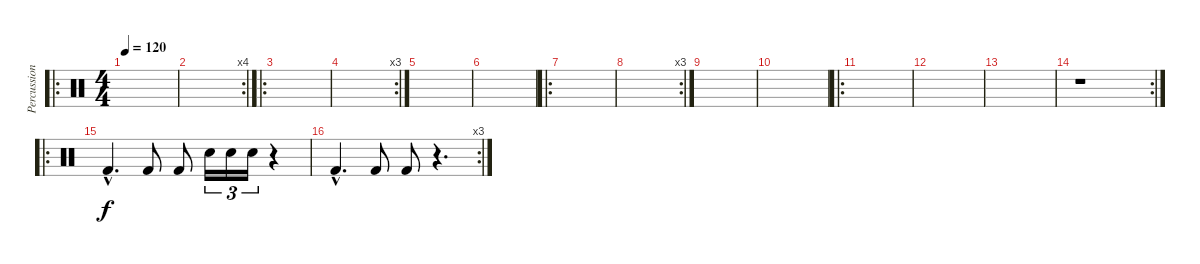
\track ("Percussions" "Percussion") {instrument percussion}
\staff {score}
\articulation defaults
\ro
\ts (4 4)
\tempo 120
\clef neutral
\ks c
|
\rc 4
|
\ro
|
\rc 3
|
|
|
\ro
|
\rc 3
|
|
|
\ro
|
|
|
\rc 2
r.1 |
\ro "Kick (hit) 2"{hac}.4{d} "Kick (hit) 2".8 "Kick (hit) 2".8 "Snare (hit) 2".16{tu (3 2)} "Snare (hit) 2".16{tu (3 2)} "Snare (hit) 2".16{tu (3 2)}
r.4 |
\rc 3 "Kick (hit) 2"{hac}.4{d} "Kick (hit) 2".8 "Kick (hit) 2".8
r.4{d}
